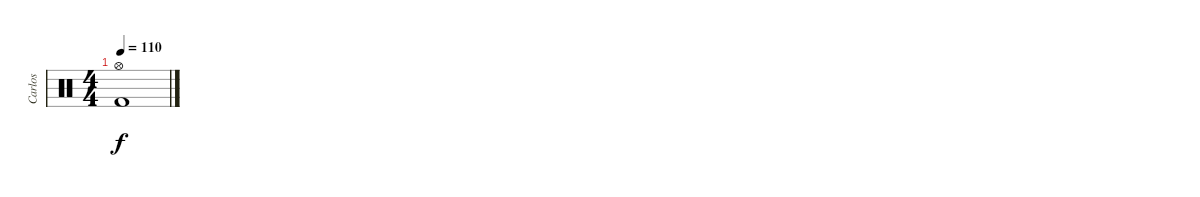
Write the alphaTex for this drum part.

\track ("Carlos" "Carlos") {instrument percussion}
\staff {score}
\articulation defaults
\ts (4 4)
\tempo 110
\clef neutral
\ks c
("Hi-Hat (open)" "Kick (hit) 2").1{dy f}
